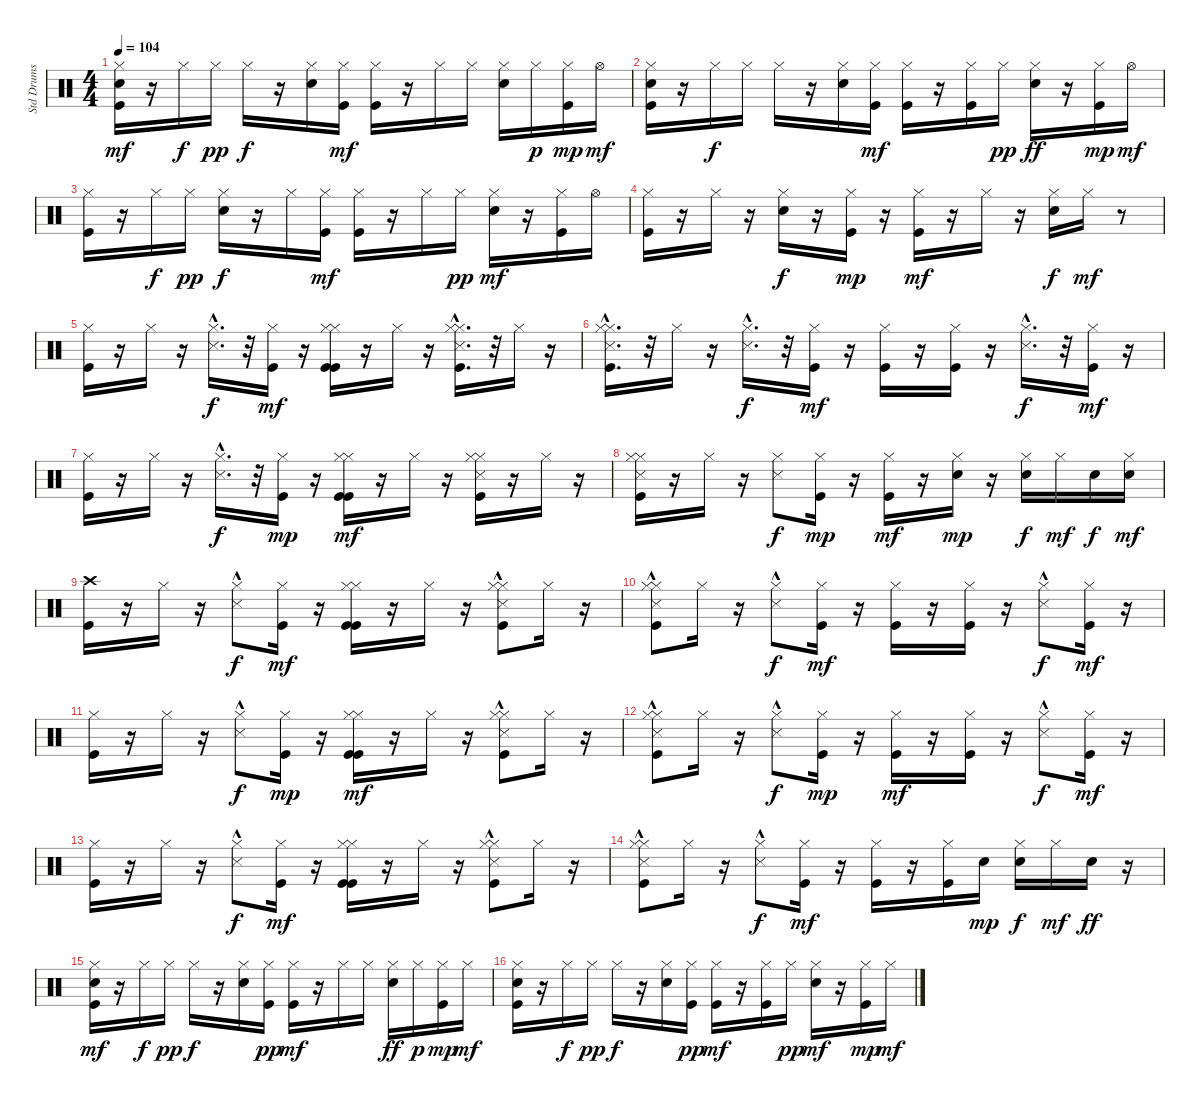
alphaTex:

\track ("Std Drums" "Std Drums") {instrument percussion}
\staff {score}
\articulation defaults
\ts (4 4)
\tempo 104
\clef neutral
\ks c
("Snare (hit) 2" "Kick (hit)" "Hi-Hat (closed)").16{dy mf} r.16 "Hi-Hat (closed)".16{dy f} "Hi-Hat (closed)".16{dy pp} "Hi-Hat (closed)".16{dy f} r.16 ("Snare (hit) 2" "Hi-Hat (closed)").16 ("Hi-Hat (closed)" "Kick (hit)").16{dy mf} ("Hi-Hat (closed)" "Kick (hit)").16 r.16 "Hi-Hat (closed)".16 "Hi-Hat (closed)".16 ("Hi-Hat (closed)" "Snare (hit) 2").16 "Hi-Hat (closed)".16{dy p} ("Kick (hit)" "Hi-Hat (closed)").16{dy mp} "Hi-Hat (open)".16{dy mf} |
("Snare (hit) 2" "Kick (hit)" "Hi-Hat (closed)").16 r.16 "Hi-Hat (closed)".16{dy f} "Hi-Hat (closed)".16 "Hi-Hat (closed)".16 r.16 ("Snare (hit) 2" "Hi-Hat (closed)").16 ("Hi-Hat (closed)" "Kick (hit)").16{dy mf} ("Hi-Hat (closed)" "Kick (hit)").16 r.16 ("Kick (hit)" "Hi-Hat (closed)").16 "Hi-Hat (closed)".16{dy pp} ("Snare (hit) 2" "Hi-Hat (closed)").16{dy ff} r.16 ("Kick (hit)" "Hi-Hat (closed)").16{dy mp} "Hi-Hat (open)".16{dy mf} |
("Kick (hit)" "Hi-Hat (closed)").16 r.16 "Hi-Hat (closed)".16{dy f} "Hi-Hat (closed)".16{dy pp} ("Hi-Hat (closed)" "Snare (hit) 2").16{dy f} r.16 "Hi-Hat (closed)".16 ("Hi-Hat (closed)" "Kick (hit)").16{dy mf} ("Hi-Hat (closed)" "Kick (hit)").16 r.16 "Hi-Hat (closed)".16 "Hi-Hat (closed)".16{dy pp} ("Hi-Hat (closed)" "Snare (hit) 2").16{dy mf} r.16 ("Hi-Hat (closed)" "Kick (hit)").16 "Hi-Hat (open)".16 |
("Kick (hit)" "Hi-Hat (closed)").16 r.16 "Hi-Hat (closed)".16 r.16 ("Snare (hit) 2" "Hi-Hat (closed)").16{dy f} r.16 ("Hi-Hat (closed)" "Kick (hit)").16{dy mp} r.16 ("Kick (hit)" "Hi-Hat (closed)").16{dy mf} r.16 "Hi-Hat (closed)".16 r.16 ("Hi-Hat (closed)" "Snare (hit) 2").16{dy f} "Hi-Hat (closed)".16{dy mf} r.8 |
("Kick (hit)" "Hi-Hat (closed)").16 r.16 "Hi-Hat (closed)".16 r.16 ("Hi-Hat (closed)" "Snare (side stick) 3"{hac}).16{d dy f} r.32 ("Kick (hit)" "Hi-Hat (closed)").16{dy mf} r.16 ("Kick (hit)" "Hi-Hat (closed)" "Kick (hit)" "Hi-Hat (closed)").16 r.16 "Hi-Hat (closed)".16 r.16 ("Hi-Hat (closed)" "Snare (side stick) 3"{hac} "Hi-Hat (closed)" "Kick (hit)").16{d} r.32 "Hi-Hat (closed)".16 r.16 |
("Snare (side stick) 3"{hac} "Hi-Hat (closed)" "Kick (hit)" "Hi-Hat (closed)").16{d} r.32 "Hi-Hat (closed)".16 r.16 ("Hi-Hat (closed)" "Snare (side stick) 3"{hac}).16{d dy f} r.32 ("Kick (hit)" "Hi-Hat (closed)").16{dy mf} r.16 ("Kick (hit)" "Hi-Hat (closed)").16 r.16 ("Kick (hit)" "Hi-Hat (closed)").16 r.16 ("Hi-Hat (closed)" "Snare (side stick) 3"{hac}).16{d dy f} r.32 ("Kick (hit)" "Hi-Hat (closed)").16{dy mf} r.16 |
("Kick (hit)" "Hi-Hat (closed)").16 r.16 "Hi-Hat (closed)".16 r.16 ("Snare (side stick) 3"{hac} "Hi-Hat (closed)").16{d dy f} r.32 ("Hi-Hat (closed)" "Kick (hit)").16{dy mp} r.16 ("Hi-Hat (closed)" "Kick (hit)" "Kick (hit)" "Hi-Hat (closed)").16{dy mf} r.16 "Hi-Hat (closed)".16 r.16 ("Snare (side stick) 3" "Hi-Hat (closed)" "Kick (hit)" "Hi-Hat (closed)").16 r.16 "Hi-Hat (closed)".16 r.16 |
("Snare (side stick) 3" "Kick (hit)" "Hi-Hat (closed)" "Hi-Hat (closed)").16 r.16 "Hi-Hat (closed)".16 r.16 ("Snare (side stick) 3" "Hi-Hat (closed)").8{dy f} ("Hi-Hat (closed)" "Kick (hit)").16{dy mp} r.16 ("Hi-Hat (closed)" "Kick (hit)").16{dy mf} r.16 ("Hi-Hat (closed)" "Snare (hit) 2").16{dy mp} r.16 ("Snare (hit) 2" "Hi-Hat (closed)").16{dy f} "Hi-Hat (closed)".16{dy mf} "Snare (hit) 2".16{dy f} ("Hi-Hat (closed)" "Snare (hit) 2").16{dy mf} |
("Kick (hit)" "Crash high (hit)").16 r.16 "Hi-Hat (closed)".16 r.16 ("Hi-Hat (closed)" "Snare (side stick) 3"{hac}).8{dy f} ("Kick (hit)" "Hi-Hat (closed)").16{dy mf} r.16 ("Kick (hit)" "Hi-Hat (closed)" "Kick (hit)" "Hi-Hat (closed)").16 r.16 "Hi-Hat (closed)".16 r.16 ("Snare (side stick) 3"{hac} "Hi-Hat (closed)" "Kick (hit)" "Hi-Hat (closed)").8 "Hi-Hat (closed)".16 r.16 |
("Hi-Hat (closed)" "Kick (hit)" "Snare (side stick) 3"{hac} "Hi-Hat (closed)").8 "Hi-Hat (closed)".16 r.16 ("Hi-Hat (closed)" "Snare (side stick) 3"{hac}).8{dy f} ("Kick (hit)" "Hi-Hat (closed)").16{dy mf} r.16 ("Hi-Hat (closed)" "Kick (hit)").16 r.16 ("Hi-Hat (closed)" "Kick (hit)").16 r.16 ("Snare (side stick) 3"{hac} "Hi-Hat (closed)").8{dy f} ("Kick (hit)" "Hi-Hat (closed)").16{dy mf} r.16 |
("Kick (hit)" "Hi-Hat (closed)").16 r.16 "Hi-Hat (closed)".16 r.16 ("Hi-Hat (closed)" "Snare (side stick) 3"{hac}).8{dy f} ("Hi-Hat (closed)" "Kick (hit)").16{dy mp} r.16 ("Hi-Hat (closed)" "Kick (hit)" "Kick (hit)" "Hi-Hat (closed)").16{dy mf} r.16 "Hi-Hat (closed)".16 r.16 ("Kick (hit)" "Hi-Hat (closed)" "Snare (side stick) 3"{hac} "Hi-Hat (closed)").8 "Hi-Hat (closed)".16 r.16 |
("Snare (side stick) 3"{hac} "Hi-Hat (closed)" "Kick (hit)" "Hi-Hat (closed)").8 "Hi-Hat (closed)".16 r.16 ("Hi-Hat (closed)" "Snare (side stick) 3"{hac}).8{dy f} ("Hi-Hat (closed)" "Kick (hit)").16{dy mp} r.16 ("Hi-Hat (closed)" "Kick (hit)").16{dy mf} r.16 ("Kick (hit)" "Hi-Hat (closed)").16 r.16 ("Hi-Hat (closed)" "Snare (side stick) 3"{hac}).8{dy f} ("Hi-Hat (closed)" "Kick (hit)").16{dy mf} r.16 |
("Kick (hit)" "Hi-Hat (closed)").16 r.16 "Hi-Hat (closed)".16 r.16 ("Snare (side stick) 3"{hac} "Hi-Hat (closed)").8{dy f} ("Kick (hit)" "Hi-Hat (closed)").16{dy mf} r.16 ("Hi-Hat (closed)" "Kick (hit)" "Hi-Hat (closed)" "Kick (hit)").16 r.16 "Hi-Hat (closed)".16 r.16 ("Snare (side stick) 3"{hac} "Hi-Hat (closed)" "Kick (hit)" "Hi-Hat (closed)").8 "Hi-Hat (closed)".16 r.16 |
("Hi-Hat (closed)" "Snare (side stick) 3"{hac} "Kick (hit)" "Hi-Hat (closed)").8 "Hi-Hat (closed)".16 r.16 ("Snare (side stick) 3"{hac} "Hi-Hat (closed)").8{dy f} ("Kick (hit)" "Hi-Hat (closed)").16{dy mf} r.16 ("Hi-Hat (closed)" "Kick (hit)").16 r.16 ("Hi-Hat (closed)" "Kick (hit)").16 "Snare (hit) 2".16{dy mp} ("Snare (hit) 2" "Hi-Hat (closed)").16{dy f} "Hi-Hat (closed)".16{dy mf} "Snare (hit) 2".16{dy ff} r.16 |
("Snare (hit) 2" "Kick (hit)" "Hi-Hat (closed)").16{dy mf} r.16 "Hi-Hat (closed)".16{dy f} "Hi-Hat (closed)".16{dy pp} "Hi-Hat (closed)".16{dy f} r.16 ("Hi-Hat (closed)" "Snare (hit) 2").16 ("Kick (hit)" "Hi-Hat (closed)").16{dy pp} ("Hi-Hat (closed)" "Kick (hit)").16{dy mf} r.16 "Hi-Hat (closed)".16 "Hi-Hat (closed)".16 ("Snare (hit) 2" "Hi-Hat (closed)").16{dy ff} "Hi-Hat (closed)".16{dy p} ("Kick (hit)" "Hi-Hat (closed)").16{dy mp} "Hi-Hat (closed)".16{dy mf} |
("Snare (hit) 2" "Kick (hit)" "Hi-Hat (closed)").16 r.16 "Hi-Hat (closed)".16{dy f} "Hi-Hat (closed)".16{dy pp} "Hi-Hat (closed)".16{dy f} r.16 ("Hi-Hat (closed)" "Snare (hit) 2").16 ("Kick (hit)" "Hi-Hat (closed)").16{dy pp} ("Hi-Hat (closed)" "Kick (hit)").16{dy mf} r.16 ("Kick (hit)" "Hi-Hat (closed)").16 "Hi-Hat (closed)".16{dy pp} ("Hi-Hat (closed)" "Snare (hit) 2").16{dy mf} r.16 ("Kick (hit)" "Hi-Hat (closed)").16{dy mp} "Hi-Hat (closed)".16{dy mf}
